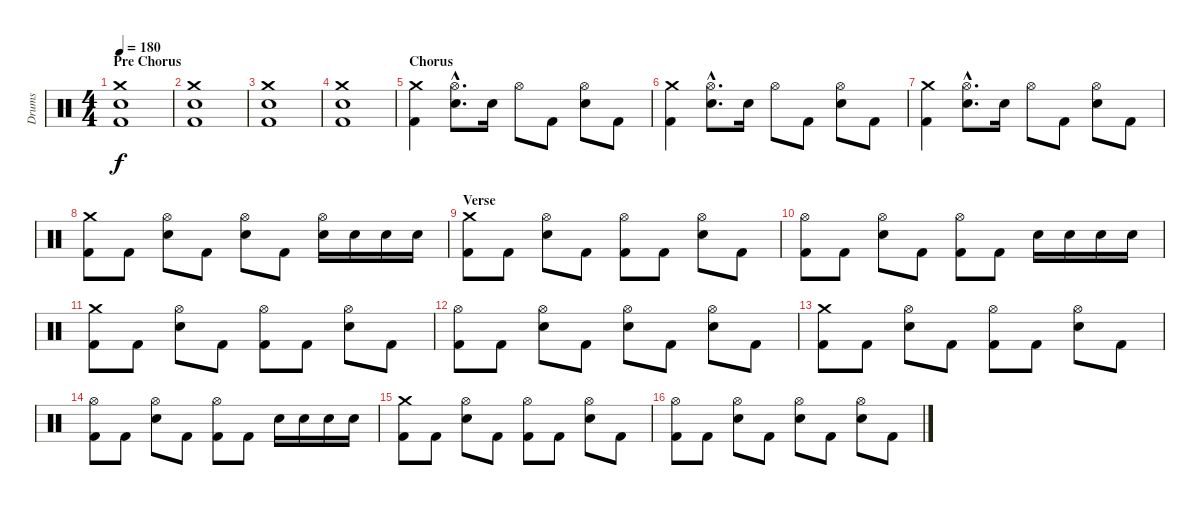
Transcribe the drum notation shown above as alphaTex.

\track ("Drums" "Drums") {instrument percussion}
\staff {score}
\articulation defaults
\ts (4 4)
\section ("" "Pre Chorus")
\tempo 180
\clef neutral
\ks c
("Crash medium (hit)" "Electric Snare (hit)" "Kick (hit) 2").1{dy f} |
("Crash medium (hit)" "Electric Snare (hit)" "Kick (hit) 2").1 |
("Crash medium (hit)" "Electric Snare (hit)" "Kick (hit) 2").1 |
("Crash medium (hit)" "Electric Snare (hit)" "Kick (hit) 2").1 |
\section ("" "Chorus")
("Crash medium (hit)" "Kick (hit) 2").4 ("Hi-Hat (open)"{hac} "Electric Snare (hit)"{hac}).8{d} "Electric Snare (hit)".16 "Hi-Hat (open)".8 "Kick (hit) 2".8 ("Hi-Hat (open)" "Electric Snare (hit)").8 "Kick (hit) 2".8 |
("Crash medium (hit)" "Kick (hit) 2").4 ("Hi-Hat (open)"{hac} "Electric Snare (hit)"{hac}).8{d} "Electric Snare (hit)".16 "Hi-Hat (open)".8 "Kick (hit) 2".8 ("Hi-Hat (open)" "Electric Snare (hit)").8 "Kick (hit) 2".8 |
("Crash medium (hit)" "Kick (hit) 2").4 ("Hi-Hat (open)"{hac} "Electric Snare (hit)"{hac}).8{d} "Electric Snare (hit)".16 "Hi-Hat (open)".8 "Kick (hit) 2".8 ("Hi-Hat (open)" "Electric Snare (hit)").8 "Kick (hit) 2".8 |
("Crash medium (hit)" "Kick (hit) 2").8 "Kick (hit) 2".8 ("Hi-Hat (open)" "Electric Snare (hit)").8 "Kick (hit) 2".8 ("Hi-Hat (open)" "Electric Snare (hit)").8 "Kick (hit) 2".8 ("Hi-Hat (open)" "Electric Snare (hit)").16 "Electric Snare (hit)".16 "Electric Snare (hit)".16 "Electric Snare (hit)".16 |
\section ("" "Verse")
("Crash medium (hit)" "Kick (hit) 2").8 "Kick (hit) 2".8 ("Hi-Hat (open)" "Electric Snare (hit)").8 "Kick (hit) 2".8 ("Hi-Hat (open)" "Kick (hit) 2").8 "Kick (hit) 2".8 ("Hi-Hat (open)" "Electric Snare (hit)").8 "Kick (hit) 2".8 |
("Hi-Hat (open)" "Kick (hit) 2").8 "Kick (hit) 2".8 ("Hi-Hat (open)" "Electric Snare (hit)").8 "Kick (hit) 2".8 ("Hi-Hat (open)" "Kick (hit) 2").8 "Kick (hit) 2".8 "Electric Snare (hit)".16 "Electric Snare (hit)".16 "Electric Snare (hit)".16 "Electric Snare (hit)".16 |
("Crash medium (hit)" "Kick (hit) 2").8 "Kick (hit) 2".8 ("Hi-Hat (open)" "Electric Snare (hit)").8 "Kick (hit) 2".8 ("Hi-Hat (open)" "Kick (hit) 2").8 "Kick (hit) 2".8 ("Hi-Hat (open)" "Electric Snare (hit)").8 "Kick (hit) 2".8 |
("Hi-Hat (open)" "Kick (hit) 2").8 "Kick (hit) 2".8 ("Hi-Hat (open)" "Electric Snare (hit)").8 "Kick (hit) 2".8 ("Hi-Hat (open)" "Electric Snare (hit)").8 "Kick (hit) 2".8 ("Hi-Hat (open)" "Electric Snare (hit)").8 "Kick (hit) 2".8 |
("Crash medium (hit)" "Kick (hit) 2").8 "Kick (hit) 2".8 ("Hi-Hat (open)" "Electric Snare (hit)").8 "Kick (hit) 2".8 ("Hi-Hat (open)" "Kick (hit) 2").8 "Kick (hit) 2".8 ("Hi-Hat (open)" "Electric Snare (hit)").8 "Kick (hit) 2".8 |
("Hi-Hat (open)" "Kick (hit) 2").8 "Kick (hit) 2".8 ("Hi-Hat (open)" "Electric Snare (hit)").8 "Kick (hit) 2".8 ("Hi-Hat (open)" "Kick (hit) 2").8 "Kick (hit) 2".8 "Electric Snare (hit)".16 "Electric Snare (hit)".16 "Electric Snare (hit)".16 "Electric Snare (hit)".16 |
("Crash medium (hit)" "Kick (hit) 2").8 "Kick (hit) 2".8 ("Hi-Hat (open)" "Electric Snare (hit)").8 "Kick (hit) 2".8 ("Hi-Hat (open)" "Kick (hit) 2").8 "Kick (hit) 2".8 ("Hi-Hat (open)" "Electric Snare (hit)").8 "Kick (hit) 2".8 |
("Hi-Hat (open)" "Kick (hit) 2").8 "Kick (hit) 2".8 ("Hi-Hat (open)" "Electric Snare (hit)").8 "Kick (hit) 2".8 ("Hi-Hat (open)" "Electric Snare (hit)").8 "Kick (hit) 2".8 ("Hi-Hat (open)" "Electric Snare (hit)").8 "Kick (hit) 2".8
